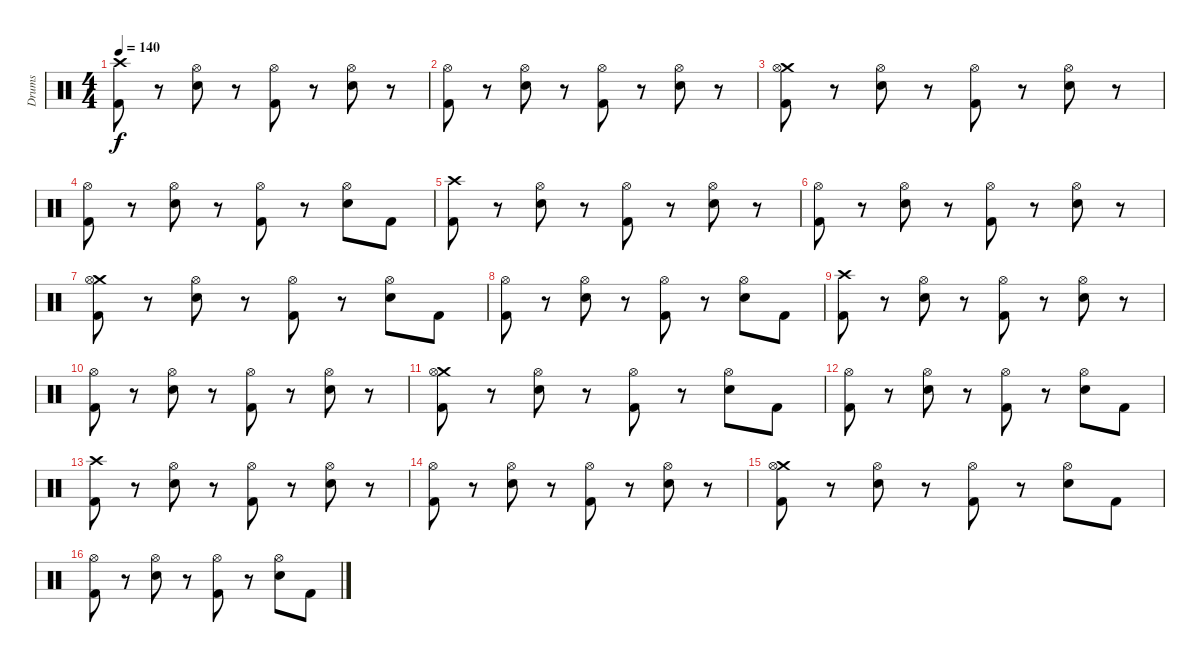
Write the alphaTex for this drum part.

\track ("Drums" "Drums") {instrument percussion}
\staff {score}
\articulation defaults
\ts (4 4)
\tempo 140
\clef neutral
\ks c
("Crash high (hit)" "Kick (hit) 2").8{dy f} r.8 ("Snare (hit) 2" "Hi-Hat (open)").8 r.8 ("Hi-Hat (open)" "Kick (hit) 2").8 r.8 ("Snare (hit) 2" "Hi-Hat (open)").8 r.8 |
("Hi-Hat (open)" "Kick (hit) 2").8 r.8 ("Snare (hit) 2" "Hi-Hat (open)").8 r.8 ("Hi-Hat (open)" "Kick (hit) 2").8 r.8 ("Snare (hit) 2" "Hi-Hat (open)").8 r.8 |
("Crash medium (hit)" "Hi-Hat (open)" "Kick (hit) 2").8 r.8 ("Snare (hit) 2" "Hi-Hat (open)").8 r.8 ("Hi-Hat (open)" "Kick (hit) 2").8 r.8 ("Snare (hit) 2" "Hi-Hat (open)").8 r.8 |
("Hi-Hat (open)" "Kick (hit) 2").8 r.8 ("Snare (hit) 2" "Hi-Hat (open)").8 r.8 ("Hi-Hat (open)" "Kick (hit) 2").8 r.8 ("Snare (hit) 2" "Hi-Hat (open)").8 "Kick (hit) 2".8 |
("Crash high (hit)" "Kick (hit) 2").8 r.8 ("Snare (hit) 2" "Hi-Hat (open)").8 r.8 ("Hi-Hat (open)" "Kick (hit) 2").8 r.8 ("Snare (hit) 2" "Hi-Hat (open)").8 r.8 |
("Hi-Hat (open)" "Kick (hit) 2").8 r.8 ("Snare (hit) 2" "Hi-Hat (open)").8 r.8 ("Hi-Hat (open)" "Kick (hit) 2").8 r.8 ("Snare (hit) 2" "Hi-Hat (open)").8 r.8 |
("Crash medium (hit)" "Hi-Hat (open)" "Kick (hit) 2").8 r.8 ("Snare (hit) 2" "Hi-Hat (open)").8 r.8 ("Hi-Hat (open)" "Kick (hit) 2").8 r.8 ("Snare (hit) 2" "Hi-Hat (open)").8 "Kick (hit) 2".8 |
("Hi-Hat (open)" "Kick (hit) 2").8 r.8 ("Snare (hit) 2" "Hi-Hat (open)").8 r.8 ("Hi-Hat (open)" "Kick (hit) 2").8 r.8 ("Snare (hit) 2" "Hi-Hat (open)").8 "Kick (hit) 2".8 |
("Crash high (hit)" "Kick (hit) 2").8 r.8 ("Snare (hit) 2" "Hi-Hat (open)").8 r.8 ("Hi-Hat (open)" "Kick (hit) 2").8 r.8 ("Snare (hit) 2" "Hi-Hat (open)").8 r.8 |
("Hi-Hat (open)" "Kick (hit) 2").8 r.8 ("Snare (hit) 2" "Hi-Hat (open)").8 r.8 ("Hi-Hat (open)" "Kick (hit) 2").8 r.8 ("Snare (hit) 2" "Hi-Hat (open)").8 r.8 |
("Crash medium (hit)" "Hi-Hat (open)" "Kick (hit) 2").8 r.8 ("Snare (hit) 2" "Hi-Hat (open)").8 r.8 ("Hi-Hat (open)" "Kick (hit) 2").8 r.8 ("Snare (hit) 2" "Hi-Hat (open)").8 "Kick (hit) 2".8 |
("Hi-Hat (open)" "Kick (hit) 2").8 r.8 ("Snare (hit) 2" "Hi-Hat (open)").8 r.8 ("Hi-Hat (open)" "Kick (hit) 2").8 r.8 ("Snare (hit) 2" "Hi-Hat (open)").8 "Kick (hit) 2".8 |
("Crash high (hit)" "Kick (hit) 2").8 r.8 ("Snare (hit) 2" "Hi-Hat (open)").8 r.8 ("Hi-Hat (open)" "Kick (hit) 2").8 r.8 ("Snare (hit) 2" "Hi-Hat (open)").8 r.8 |
("Hi-Hat (open)" "Kick (hit) 2").8 r.8 ("Snare (hit) 2" "Hi-Hat (open)").8 r.8 ("Hi-Hat (open)" "Kick (hit) 2").8 r.8 ("Snare (hit) 2" "Hi-Hat (open)").8 r.8 |
("Crash medium (hit)" "Hi-Hat (open)" "Kick (hit) 2").8 r.8 ("Snare (hit) 2" "Hi-Hat (open)").8 r.8 ("Hi-Hat (open)" "Kick (hit) 2").8 r.8 ("Snare (hit) 2" "Hi-Hat (open)").8 "Kick (hit) 2".8 |
("Hi-Hat (open)" "Kick (hit) 2").8 r.8 ("Snare (hit) 2" "Hi-Hat (open)").8 r.8 ("Hi-Hat (open)" "Kick (hit) 2").8 r.8 ("Snare (hit) 2" "Hi-Hat (open)").8 "Kick (hit) 2".8
